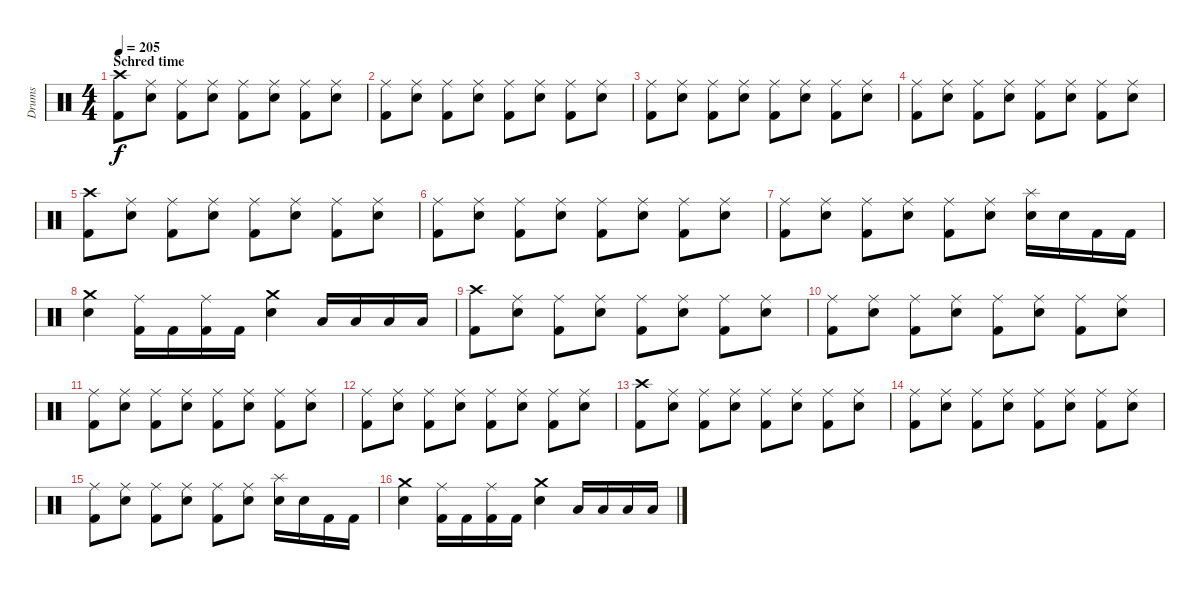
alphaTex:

\track ("Drums" "Drums") {instrument percussion}
\staff {score}
\articulation defaults
\ts (4 4)
\section ("" "Schred time")
\tempo 205
\clef neutral
\ks c
("Crash high (hit)" "Kick (hit) 2").8{dy f} ("Ride (middle)" "Electric Snare (hit)").8 ("Ride (middle)" "Kick (hit) 2").8 ("Ride (middle)" "Electric Snare (hit)").8 ("Ride (middle)" "Kick (hit) 2").8 ("Ride (middle)" "Electric Snare (hit)").8 ("Ride (middle)" "Kick (hit) 2").8 ("Ride (middle)" "Electric Snare (hit)").8 |
("Ride (middle)" "Kick (hit) 2").8 ("Ride (middle)" "Electric Snare (hit)").8 ("Ride (middle)" "Kick (hit) 2").8 ("Ride (middle)" "Electric Snare (hit)").8 ("Ride (middle)" "Kick (hit) 2").8 ("Ride (middle)" "Electric Snare (hit)").8 ("Ride (middle)" "Kick (hit) 2").8 ("Ride (middle)" "Electric Snare (hit)").8 |
("Ride (middle)" "Kick (hit) 2").8 ("Ride (middle)" "Electric Snare (hit)").8 ("Ride (middle)" "Kick (hit) 2").8 ("Ride (middle)" "Electric Snare (hit)").8 ("Ride (middle)" "Kick (hit) 2").8 ("Ride (middle)" "Electric Snare (hit)").8 ("Ride (middle)" "Kick (hit) 2").8 ("Ride (middle)" "Electric Snare (hit)").8 |
("Ride (middle)" "Kick (hit) 2").8 ("Ride (middle)" "Electric Snare (hit)").8 ("Ride (middle)" "Kick (hit) 2").8 ("Ride (middle)" "Electric Snare (hit)").8 ("Ride (middle)" "Kick (hit) 2").8 ("Ride (middle)" "Electric Snare (hit)").8 ("Ride (middle)" "Kick (hit) 2").8 ("Ride (middle)" "Electric Snare (hit)").8 |
("Crash high (hit)" "Kick (hit) 2").8 ("Ride (middle)" "Electric Snare (hit)").8 ("Ride (middle)" "Kick (hit) 2").8 ("Ride (middle)" "Electric Snare (hit)").8 ("Ride (middle)" "Kick (hit) 2").8 ("Ride (middle)" "Electric Snare (hit)").8 ("Ride (middle)" "Kick (hit) 2").8 ("Ride (middle)" "Electric Snare (hit)").8 |
("Ride (middle)" "Kick (hit) 2").8 ("Ride (middle)" "Electric Snare (hit)").8 ("Ride (middle)" "Kick (hit) 2").8 ("Ride (middle)" "Electric Snare (hit)").8 ("Ride (middle)" "Kick (hit) 2").8 ("Ride (middle)" "Electric Snare (hit)").8 ("Ride (middle)" "Kick (hit) 2").8 ("Ride (middle)" "Electric Snare (hit)").8 |
("Ride (middle)" "Kick (hit) 2").8 ("Ride (middle)" "Electric Snare (hit)").8 ("Ride (middle)" "Kick (hit) 2").8 ("Ride (middle)" "Electric Snare (hit)").8 ("Ride (middle)" "Kick (hit) 2").8 ("Ride (middle)" "Electric Snare (hit)").8 ("Splash (hit)" "Electric Snare (hit)").16 "Electric Snare (hit)".16 "Kick (hit) 2".16 "Kick (hit) 2".16 |
("Crash medium (hit)" "Electric Snare (hit)").4 ("Ride (middle)" "Kick (hit) 2").16 "Kick (hit) 2".16 ("Ride (middle)" "Kick (hit) 2").16 "Kick (hit) 2".16 ("Crash medium (hit)" "Electric Snare (hit)").4 "Low Tom (hit)".16 "Low Tom (hit)".16 "Low Tom (hit)".16 "Low Tom (hit)".16 |
("Crash high (hit)" "Kick (hit) 2").8 ("Ride (middle)" "Electric Snare (hit)").8 ("Ride (middle)" "Kick (hit) 2").8 ("Ride (middle)" "Electric Snare (hit)").8 ("Ride (middle)" "Kick (hit) 2").8 ("Ride (middle)" "Electric Snare (hit)").8 ("Ride (middle)" "Kick (hit) 2").8 ("Ride (middle)" "Electric Snare (hit)").8 |
("Ride (middle)" "Kick (hit) 2").8 ("Ride (middle)" "Electric Snare (hit)").8 ("Ride (middle)" "Kick (hit) 2").8 ("Ride (middle)" "Electric Snare (hit)").8 ("Ride (middle)" "Kick (hit) 2").8 ("Ride (middle)" "Electric Snare (hit)").8 ("Ride (middle)" "Kick (hit) 2").8 ("Ride (middle)" "Electric Snare (hit)").8 |
("Ride (middle)" "Kick (hit) 2").8 ("Ride (middle)" "Electric Snare (hit)").8 ("Ride (middle)" "Kick (hit) 2").8 ("Ride (middle)" "Electric Snare (hit)").8 ("Ride (middle)" "Kick (hit) 2").8 ("Ride (middle)" "Electric Snare (hit)").8 ("Ride (middle)" "Kick (hit) 2").8 ("Ride (middle)" "Electric Snare (hit)").8 |
("Ride (middle)" "Kick (hit) 2").8 ("Ride (middle)" "Electric Snare (hit)").8 ("Ride (middle)" "Kick (hit) 2").8 ("Ride (middle)" "Electric Snare (hit)").8 ("Ride (middle)" "Kick (hit) 2").8 ("Ride (middle)" "Electric Snare (hit)").8 ("Ride (middle)" "Kick (hit) 2").8 ("Ride (middle)" "Electric Snare (hit)").8 |
("Crash high (hit)" "Kick (hit) 2").8 ("Ride (middle)" "Electric Snare (hit)").8 ("Ride (middle)" "Kick (hit) 2").8 ("Ride (middle)" "Electric Snare (hit)").8 ("Ride (middle)" "Kick (hit) 2").8 ("Ride (middle)" "Electric Snare (hit)").8 ("Ride (middle)" "Kick (hit) 2").8 ("Ride (middle)" "Electric Snare (hit)").8 |
("Ride (middle)" "Kick (hit) 2").8 ("Ride (middle)" "Electric Snare (hit)").8 ("Ride (middle)" "Kick (hit) 2").8 ("Ride (middle)" "Electric Snare (hit)").8 ("Ride (middle)" "Kick (hit) 2").8 ("Ride (middle)" "Electric Snare (hit)").8 ("Ride (middle)" "Kick (hit) 2").8 ("Ride (middle)" "Electric Snare (hit)").8 |
("Ride (middle)" "Kick (hit) 2").8 ("Ride (middle)" "Electric Snare (hit)").8 ("Ride (middle)" "Kick (hit) 2").8 ("Ride (middle)" "Electric Snare (hit)").8 ("Ride (middle)" "Kick (hit) 2").8 ("Ride (middle)" "Electric Snare (hit)").8 ("Splash (hit)" "Electric Snare (hit)").16 "Electric Snare (hit)".16 "Kick (hit) 2".16 "Kick (hit) 2".16 |
("Crash medium (hit)" "Electric Snare (hit)").4 ("Ride (middle)" "Kick (hit) 2").16 "Kick (hit) 2".16 ("Ride (middle)" "Kick (hit) 2").16 "Kick (hit) 2".16 ("Crash medium (hit)" "Electric Snare (hit)").4 "Low Tom (hit)".16 "Low Tom (hit)".16 "Low Tom (hit)".16 "Low Tom (hit)".16
